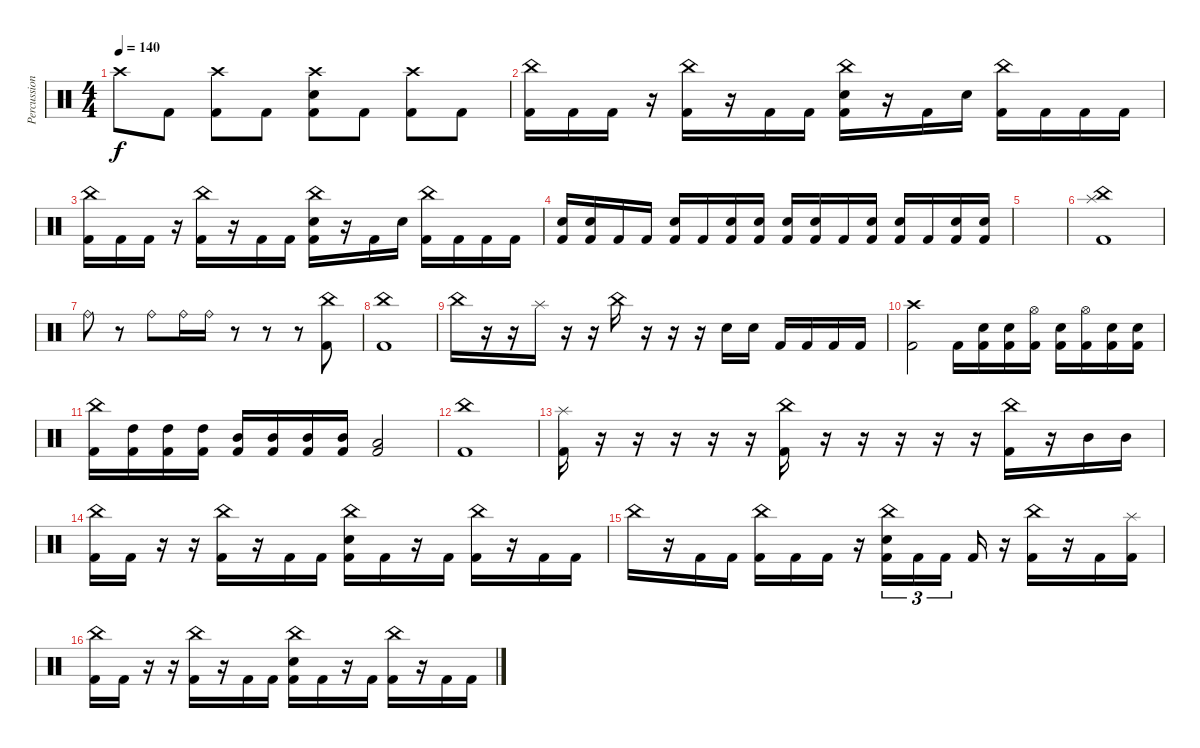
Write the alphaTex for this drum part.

\track ("Percussion" "Percussion") {instrument percussion}
\staff {score}
\articulation defaults
\ts (4 4)
\tempo 140
\clef neutral
\ks c "Crash high (hit)".8{dy f} "Kick (hit) 2".8
("Crash high (hit)" "Kick (hit) 2").8 "Kick (hit) 2".8 ("Crash high (hit)" "Snare (hit) 2" "Kick (hit) 2").8 "Kick (hit) 2".8 ("Crash high (hit)" "Kick (hit) 2").8 "Kick (hit) 2".8 |
("China (hit)" "Kick (hit) 2").16 "Kick (hit) 2".16 "Kick (hit) 2".16 r.16 ("China (hit)" "Kick (hit) 2").16 r.16 "Kick (hit) 2".16 "Kick (hit) 2".16 ("China (hit)" "Snare (hit) 2" "Kick (hit) 2").16 r.16 "Kick (hit) 2".16 "Snare (hit) 2".16 ("China (hit)" "Kick (hit) 2").16 "Kick (hit) 2".16 "Kick (hit) 2".16 "Kick (hit) 2".16 |
("China (hit)" "Kick (hit) 2").16 "Kick (hit) 2".16 "Kick (hit) 2".16 r.16 ("China (hit)" "Kick (hit) 2").16 r.16 "Kick (hit) 2".16 "Kick (hit) 2".16 ("China (hit)" "Snare (hit) 2" "Kick (hit) 2").16 r.16 "Kick (hit) 2".16 "Snare (hit) 2".16 ("China (hit)" "Kick (hit) 2").16 "Kick (hit) 2".16 "Kick (hit) 2".16 "Kick (hit) 2".16 |
("Snare (hit) 2" "Kick (hit) 2").16 ("Snare (hit) 2" "Kick (hit) 2").16 "Kick (hit) 2".16 "Kick (hit) 2".16 ("Snare (hit) 2" "Kick (hit) 2").16 "Kick (hit) 2".16 ("Snare (hit) 2" "Kick (hit) 2").16 ("Snare (hit) 2" "Kick (hit) 2").16 ("Snare (hit) 2" "Kick (hit) 2").16 ("Snare (hit) 2" "Kick (hit) 2").16 "Kick (hit) 2".16 ("Snare (hit) 2" "Kick (hit) 2").16 ("Snare (hit) 2" "Kick (hit) 2").16 "Kick (hit) 2".16 ("Snare (hit) 2" "Kick (hit) 2").16 ("Snare (hit) 2" "Kick (hit) 2").16 |
|
("China (hit)" "Splash (hit)" "Kick (hit) 2").1 |
"Ride (bell)".8 r.8 "Ride (bell)".8 "Ride (bell)".16 "Ride (bell)".16 r.8 r.8 r.8 ("China (hit)" "Kick (hit) 2").8 |
("China (hit)" "Kick (hit) 2").1 |
"China (hit)".16 r.16 r.16 "Splash (hit)".16 r.16 r.16 "China (hit)".16 r.16 r.16 r.16 "Snare (hit) 2".16 "Snare (hit) 2".16 "Kick (hit) 2".16 "Kick (hit) 2".16 "Kick (hit) 2".16 "Kick (hit) 2".16 |
("Crash high (hit)" "Kick (hit) 2").2 "Kick (hit) 2".16 ("Snare (hit) 2" "Kick (hit) 2").16 ("Snare (hit) 2" "Kick (hit) 2").16 ("Hi-Hat (open)" "Kick (hit) 2").16 ("Snare (hit) 2" "Kick (hit) 2").16 ("Hi-Hat (open)" "Kick (hit) 2").16 ("Snare (hit) 2" "Kick (hit) 2").16 ("Snare (hit) 2" "Kick (hit) 2").16 |
("China (hit)" "Kick (hit) 2").16 ("High Tom (hit)" "Kick (hit) 2").16 ("High Tom (hit)" "Kick (hit) 2").16 ("High Tom (hit)" "Kick (hit) 2").16 ("Mid Tom (hit)" "Kick (hit) 2").16 ("Mid Tom (hit)" "Kick (hit) 2").16 ("Mid Tom (hit)" "Kick (hit) 2").16 ("Mid Tom (hit)" "Kick (hit) 2").16 ("Low Tom (hit)" "Kick (hit) 2").2 |
("China (hit)" "Kick (hit) 2").1 |
("Splash (hit)" "Kick (hit) 2").16 r.16 r.16 r.16 r.16 r.16 ("China (hit)" "Kick (hit) 2").16 r.16 r.16 r.16 r.16 r.16 ("China (hit)" "Kick (hit) 2").16 r.16 "Mid Tom (hit)".16 "Mid Tom (hit)".16 |
("China (hit)" "Kick (hit) 2").16 "Kick (hit) 2".16 r.16 r.16 ("China (hit)" "Kick (hit) 2").16 r.16 "Kick (hit) 2".16 "Kick (hit) 2".16 ("China (hit)" "Snare (hit) 2" "Kick (hit) 2").16 "Kick (hit) 2".16 r.16 "Kick (hit) 2".16 ("China (hit)" "Kick (hit) 2").16 r.16 "Kick (hit) 2".16 "Kick (hit) 2".16 |
"China (hit)".16 r.16 "Kick (hit) 2".16 "Kick (hit) 2".16 ("China (hit)" "Kick (hit) 2").16 "Kick (hit) 2".16 "Kick (hit) 2".16 r.16 ("China (hit)" "Snare (hit) 2" "Kick (hit) 2").16{tu (3 2)} "Kick (hit) 2".16{tu (3 2)} "Kick (hit) 2".16{tu (3 2) beam splitsecondary} "Kick (hit) 2".16 r.16 ("China (hit)" "Kick (hit) 2").16 r.16 "Kick (hit) 2".16 ("Splash (hit)" "Kick (hit) 2").16 |
("China (hit)" "Kick (hit) 2").16 "Kick (hit) 2".16 r.16 r.16 ("China (hit)" "Kick (hit) 2").16 r.16 "Kick (hit) 2".16 "Kick (hit) 2".16 ("China (hit)" "Snare (hit) 2" "Kick (hit) 2").16 "Kick (hit) 2".16 r.16 "Kick (hit) 2".16 ("China (hit)" "Kick (hit) 2").16 r.16 "Kick (hit) 2".16 "Kick (hit) 2".16
